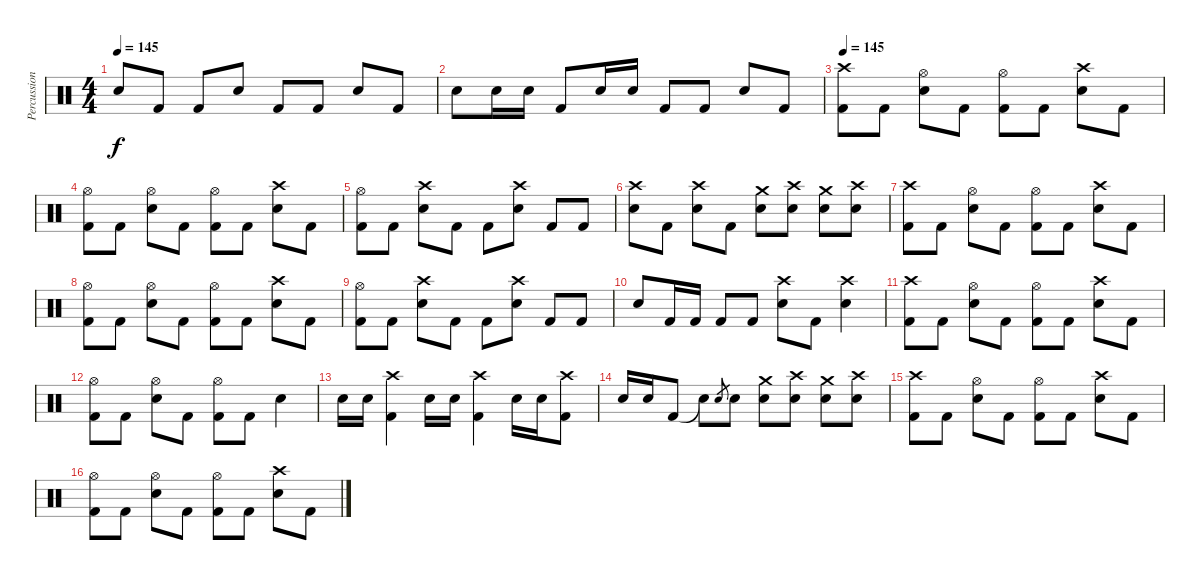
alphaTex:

\track ("Percussion" "Percussion") {instrument percussion}
\staff {score}
\articulation defaults
\ts (4 4)
\tempo 145
\clef neutral
\ks c "Electric Snare (hit)".8{dy f} "Kick (hit) 2".8 "Kick (hit) 2".8 "Electric Snare (hit)".8 "Kick (hit) 2".8 "Kick (hit) 2".8 "Electric Snare (hit)".8 "Kick (hit) 2".8
|
"Electric Snare (hit)".8 "Electric Snare (hit)".16 "Electric Snare (hit)".16 "Kick (hit) 2".8 "Electric Snare (hit)".16 "Electric Snare (hit)".16 "Kick (hit) 2".8 "Kick (hit) 2".8 "Electric Snare (hit)".8 "Kick (hit) 2".8 |
\tempo 145
("Crash high (hit)" "Kick (hit) 2").8 "Kick (hit) 2".8 ("Hi-Hat (open)" "Electric Snare (hit)").8 "Kick (hit) 2".8 ("Hi-Hat (open)" "Kick (hit) 2").8 "Kick (hit) 2".8 ("Crash high (hit)" "Electric Snare (hit)").8 "Kick (hit) 2".8 |
("Hi-Hat (open)" "Kick (hit) 2").8 "Kick (hit) 2".8 ("Hi-Hat (open)" "Electric Snare (hit)").8 "Kick (hit) 2".8 ("Hi-Hat (open)" "Kick (hit) 2").8 "Kick (hit) 2".8 ("Crash high (hit)" "Electric Snare (hit)").8 "Kick (hit) 2".8 |
("Hi-Hat (open)" "Kick (hit) 2").8 "Kick (hit) 2".8 ("Crash high (hit)" "Electric Snare (hit)").8 "Kick (hit) 2".8 "Kick (hit) 2".8 ("Crash high (hit)" "Electric Snare (hit)").8 "Kick (hit) 2".8 "Kick (hit) 2".8 |
("Crash high (hit)" "Electric Snare (hit)").8 "Kick (hit) 2".8 ("Crash high (hit)" "Electric Snare (hit)").8 "Kick (hit) 2".8 ("Crash medium (hit)" "Electric Snare (hit)").8 ("Crash high (hit)" "Electric Snare (hit)").8 ("Crash medium (hit)" "Electric Snare (hit)").8 ("Crash high (hit)" "Electric Snare (hit)").8 |
("Crash high (hit)" "Kick (hit) 2").8 "Kick (hit) 2".8 ("Hi-Hat (open)" "Electric Snare (hit)").8 "Kick (hit) 2".8 ("Hi-Hat (open)" "Kick (hit) 2").8 "Kick (hit) 2".8 ("Crash high (hit)" "Electric Snare (hit)").8 "Kick (hit) 2".8 |
("Hi-Hat (open)" "Kick (hit) 2").8 "Kick (hit) 2".8 ("Hi-Hat (open)" "Electric Snare (hit)").8 "Kick (hit) 2".8 ("Hi-Hat (open)" "Kick (hit) 2").8 "Kick (hit) 2".8 ("Crash high (hit)" "Electric Snare (hit)").8 "Kick (hit) 2".8 |
("Hi-Hat (open)" "Kick (hit) 2").8 "Kick (hit) 2".8 ("Crash high (hit)" "Electric Snare (hit)").8 "Kick (hit) 2".8 "Kick (hit) 2".8 ("Crash high (hit)" "Electric Snare (hit)").8 "Kick (hit) 2".8 "Kick (hit) 2".8 |
"Electric Snare (hit)".8 "Kick (hit) 2".16 "Kick (hit) 2".16 "Kick (hit) 2".8 "Kick (hit) 2".8 ("Crash high (hit)" "Electric Snare (hit)").8 "Kick (hit) 2".8 ("Crash high (hit)" "Electric Snare (hit)").4 |
("Crash high (hit)" "Kick (hit) 2").8 "Kick (hit) 2".8 ("Hi-Hat (open)" "Electric Snare (hit)").8 "Kick (hit) 2".8 ("Hi-Hat (open)" "Kick (hit) 2").8 "Kick (hit) 2".8 ("Crash high (hit)" "Electric Snare (hit)").8 "Kick (hit) 2".8 |
("Hi-Hat (open)" "Kick (hit) 2").8 "Kick (hit) 2".8 ("Hi-Hat (open)" "Electric Snare (hit)").8 "Kick (hit) 2".8 ("Hi-Hat (open)" "Kick (hit) 2").8 "Kick (hit) 2".8 "Electric Snare (hit)".4 |
"Electric Snare (hit)".16 "Electric Snare (hit)".16 ("Crash high (hit)" "Kick (hit) 2").4 "Electric Snare (hit)".16 "Electric Snare (hit)".16 ("Crash high (hit)" "Kick (hit) 2").4 "Electric Snare (hit)".16 "Electric Snare (hit)".16 ("Crash high (hit)" "Kick (hit) 2").8 |
"Electric Snare (hit)".16 "Electric Snare (hit)".16 "Kick (hit) 2".8 "Snare (hit)"{t}.8 "Electric Snare (hit)".8{gr} "Electric Snare (hit)".8 ("Crash medium (hit)" "Electric Snare (hit)").8 ("Crash high (hit)" "Electric Snare (hit)").8 ("Crash medium (hit)" "Electric Snare (hit)").8 ("Crash high (hit)" "Electric Snare (hit)").8 |
("Crash high (hit)" "Kick (hit) 2").8 "Kick (hit) 2".8 ("Hi-Hat (open)" "Electric Snare (hit)").8 "Kick (hit) 2".8 ("Hi-Hat (open)" "Kick (hit) 2").8 "Kick (hit) 2".8 ("Crash high (hit)" "Electric Snare (hit)").8 "Kick (hit) 2".8 |
("Hi-Hat (open)" "Kick (hit) 2").8 "Kick (hit) 2".8 ("Hi-Hat (open)" "Electric Snare (hit)").8 "Kick (hit) 2".8 ("Hi-Hat (open)" "Kick (hit) 2").8 "Kick (hit) 2".8 ("Crash high (hit)" "Electric Snare (hit)").8 "Kick (hit) 2".8
